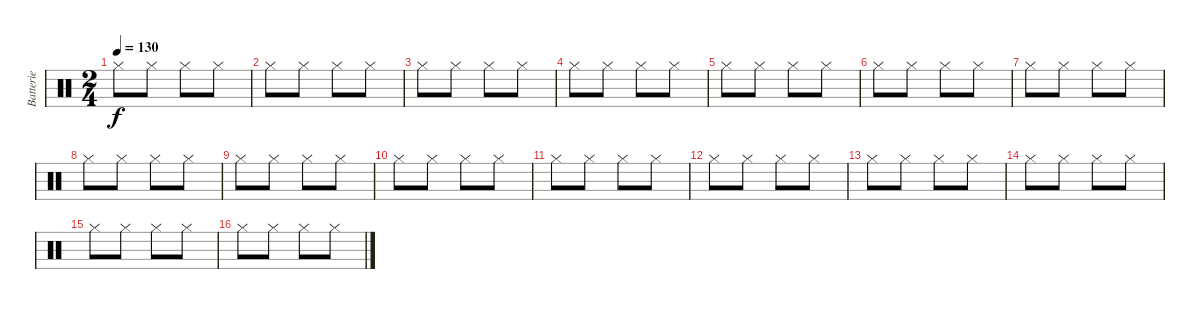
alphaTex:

\track ("Batterie" "Batterie") {instrument percussion}
\staff {score}
\articulation defaults
\ts (2 4)
\tempo 130
\clef neutral
\ks c "Hi-Hat (closed)".8{dy f} "Hi-Hat (closed)".8 "Hi-Hat (closed)".8 "Hi-Hat (closed)".8
|
"Hi-Hat (closed)".8 "Hi-Hat (closed)".8 "Hi-Hat (closed)".8 "Hi-Hat (closed)".8 |
"Hi-Hat (closed)".8 "Hi-Hat (closed)".8 "Hi-Hat (closed)".8 "Hi-Hat (closed)".8 |
"Hi-Hat (closed)".8 "Hi-Hat (closed)".8 "Hi-Hat (closed)".8 "Hi-Hat (closed)".8 |
"Hi-Hat (closed)".8 "Hi-Hat (closed)".8 "Hi-Hat (closed)".8 "Hi-Hat (closed)".8 |
"Hi-Hat (closed)".8 "Hi-Hat (closed)".8 "Hi-Hat (closed)".8 "Hi-Hat (closed)".8 |
"Hi-Hat (closed)".8 "Hi-Hat (closed)".8 "Hi-Hat (closed)".8 "Hi-Hat (closed)".8 |
"Hi-Hat (closed)".8 "Hi-Hat (closed)".8 "Hi-Hat (closed)".8 "Hi-Hat (closed)".8 |
"Hi-Hat (closed)".8 "Hi-Hat (closed)".8 "Hi-Hat (closed)".8 "Hi-Hat (closed)".8 |
"Hi-Hat (closed)".8 "Hi-Hat (closed)".8 "Hi-Hat (closed)".8 "Hi-Hat (closed)".8 |
"Hi-Hat (closed)".8 "Hi-Hat (closed)".8 "Hi-Hat (closed)".8 "Hi-Hat (closed)".8 |
"Hi-Hat (closed)".8 "Hi-Hat (closed)".8 "Hi-Hat (closed)".8 "Hi-Hat (closed)".8 |
"Hi-Hat (closed)".8 "Hi-Hat (closed)".8 "Hi-Hat (closed)".8 "Hi-Hat (closed)".8 |
"Hi-Hat (closed)".8 "Hi-Hat (closed)".8 "Hi-Hat (closed)".8 "Hi-Hat (closed)".8 |
"Hi-Hat (closed)".8 "Hi-Hat (closed)".8 "Hi-Hat (closed)".8 "Hi-Hat (closed)".8 |
"Hi-Hat (closed)".8 "Hi-Hat (closed)".8 "Hi-Hat (closed)".8 "Hi-Hat (closed)".8
